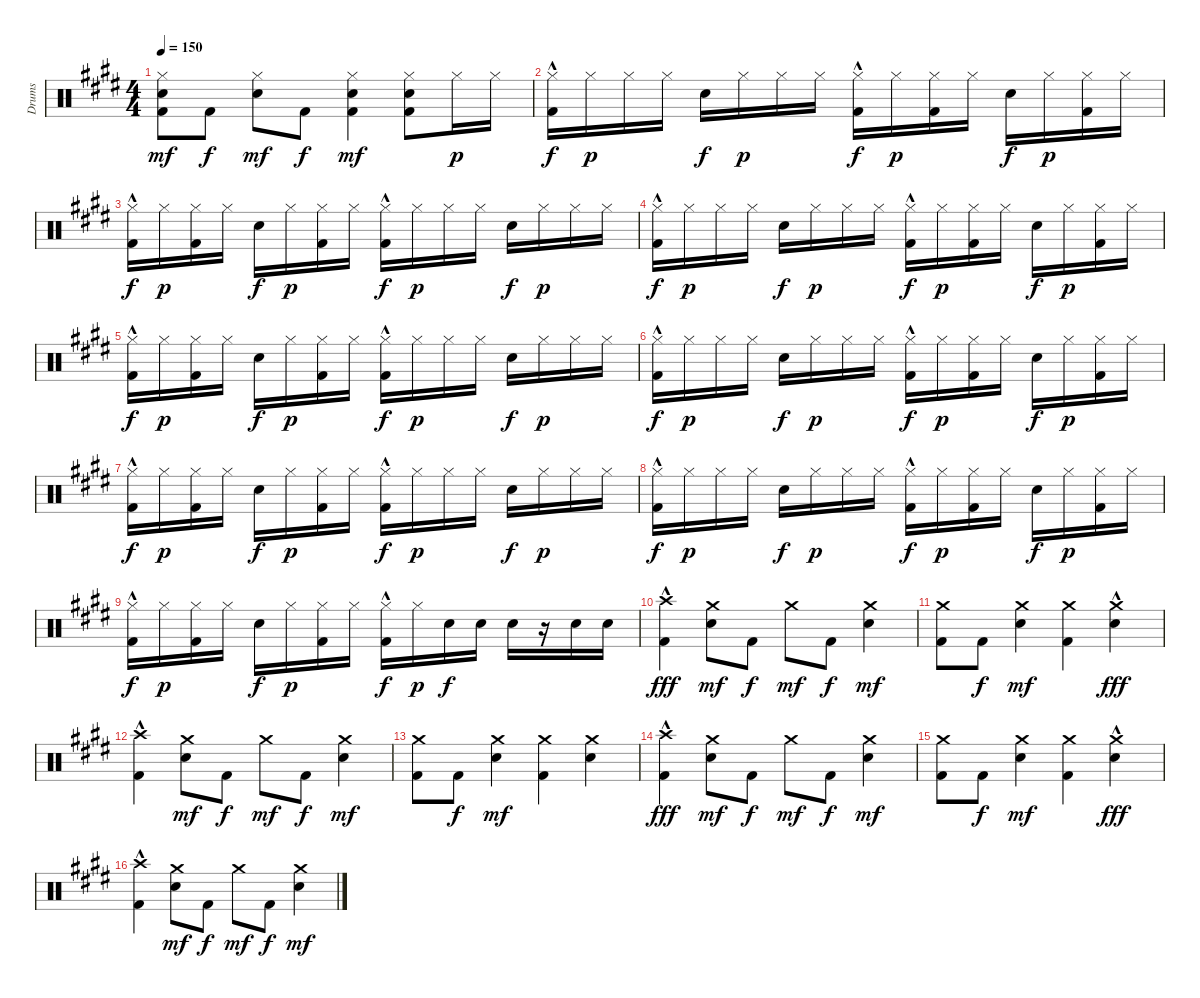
\track ("Drums" "Drums") {instrument percussion}
\staff {score}
\articulation defaults
\ts (4 4)
\tempo 150
\clef neutral
\ks e
("Hi-Hat (closed)" "Electric Snare (hit)" "Kick (hit) 2").8{dy mf} "Kick (hit) 2".8{dy f} ("Hi-Hat (closed)" "Electric Snare (hit)").8{dy mf} "Kick (hit) 2".8{dy f} ("Hi-Hat (closed)" "Electric Snare (hit)" "Kick (hit) 2").4{dy mf} ("Hi-Hat (closed)" "Electric Snare (hit)" "Kick (hit) 2").8 "Hi-Hat (closed)".16{dy p} "Hi-Hat (closed)".16 |
("Hi-Hat (closed)"{hac} "Kick (hit) 2").16{dy f} "Hi-Hat (closed)".16{dy p} "Hi-Hat (closed)".16 "Hi-Hat (closed)".16 "Electric Snare (hit)".16{dy f} "Hi-Hat (closed)".16{dy p} "Hi-Hat (closed)".16 "Hi-Hat (closed)".16 ("Hi-Hat (closed)"{hac} "Kick (hit) 2").16{dy f} "Hi-Hat (closed)".16{dy p} ("Hi-Hat (closed)" "Kick (hit) 2").16 "Hi-Hat (closed)".16 "Electric Snare (hit)".16{dy f} "Hi-Hat (closed)".16{dy p} ("Hi-Hat (closed)" "Kick (hit) 2").16 "Hi-Hat (closed)".16 |
("Hi-Hat (closed)"{hac} "Kick (hit) 2").16{dy f} "Hi-Hat (closed)".16{dy p} ("Hi-Hat (closed)" "Kick (hit) 2").16 "Hi-Hat (closed)".16 "Electric Snare (hit)".16{dy f} "Hi-Hat (closed)".16{dy p} ("Hi-Hat (closed)" "Kick (hit) 2").16 "Hi-Hat (closed)".16 ("Hi-Hat (closed)"{hac} "Kick (hit) 2").16{dy f} "Hi-Hat (closed)".16{dy p} "Hi-Hat (closed)".16 "Hi-Hat (closed)".16 "Electric Snare (hit)".16{dy f} "Hi-Hat (closed)".16{dy p} "Hi-Hat (closed)".16 "Hi-Hat (closed)".16 |
("Hi-Hat (closed)"{hac} "Kick (hit) 2").16{dy f} "Hi-Hat (closed)".16{dy p} "Hi-Hat (closed)".16 "Hi-Hat (closed)".16 "Electric Snare (hit)".16{dy f} "Hi-Hat (closed)".16{dy p} "Hi-Hat (closed)".16 "Hi-Hat (closed)".16 ("Hi-Hat (closed)"{hac} "Kick (hit) 2").16{dy f} "Hi-Hat (closed)".16{dy p} ("Hi-Hat (closed)" "Kick (hit) 2").16 "Hi-Hat (closed)".16 "Electric Snare (hit)".16{dy f} "Hi-Hat (closed)".16{dy p} ("Hi-Hat (closed)" "Kick (hit) 2").16 "Hi-Hat (closed)".16 |
("Hi-Hat (closed)"{hac} "Kick (hit) 2").16{dy f} "Hi-Hat (closed)".16{dy p} ("Hi-Hat (closed)" "Kick (hit) 2").16 "Hi-Hat (closed)".16 "Electric Snare (hit)".16{dy f} "Hi-Hat (closed)".16{dy p} ("Hi-Hat (closed)" "Kick (hit) 2").16 "Hi-Hat (closed)".16 ("Hi-Hat (closed)"{hac} "Kick (hit) 2").16{dy f} "Hi-Hat (closed)".16{dy p} "Hi-Hat (closed)".16 "Hi-Hat (closed)".16 "Electric Snare (hit)".16{dy f} "Hi-Hat (closed)".16{dy p} "Hi-Hat (closed)".16 "Hi-Hat (closed)".16 |
("Hi-Hat (closed)"{hac} "Kick (hit) 2").16{dy f} "Hi-Hat (closed)".16{dy p} "Hi-Hat (closed)".16 "Hi-Hat (closed)".16 "Electric Snare (hit)".16{dy f} "Hi-Hat (closed)".16{dy p} "Hi-Hat (closed)".16 "Hi-Hat (closed)".16 ("Hi-Hat (closed)"{hac} "Kick (hit) 2").16{dy f} "Hi-Hat (closed)".16{dy p} ("Hi-Hat (closed)" "Kick (hit) 2").16 "Hi-Hat (closed)".16 "Electric Snare (hit)".16{dy f} "Hi-Hat (closed)".16{dy p} ("Hi-Hat (closed)" "Kick (hit) 2").16 "Hi-Hat (closed)".16 |
("Hi-Hat (closed)"{hac} "Kick (hit) 2").16{dy f} "Hi-Hat (closed)".16{dy p} ("Hi-Hat (closed)" "Kick (hit) 2").16 "Hi-Hat (closed)".16 "Electric Snare (hit)".16{dy f} "Hi-Hat (closed)".16{dy p} ("Hi-Hat (closed)" "Kick (hit) 2").16 "Hi-Hat (closed)".16 ("Hi-Hat (closed)"{hac} "Kick (hit) 2").16{dy f} "Hi-Hat (closed)".16{dy p} "Hi-Hat (closed)".16 "Hi-Hat (closed)".16 "Electric Snare (hit)".16{dy f} "Hi-Hat (closed)".16{dy p} "Hi-Hat (closed)".16 "Hi-Hat (closed)".16 |
("Hi-Hat (closed)"{hac} "Kick (hit) 2").16{dy f} "Hi-Hat (closed)".16{dy p} "Hi-Hat (closed)".16 "Hi-Hat (closed)".16 "Electric Snare (hit)".16{dy f} "Hi-Hat (closed)".16{dy p} "Hi-Hat (closed)".16 "Hi-Hat (closed)".16 ("Hi-Hat (closed)"{hac} "Kick (hit) 2").16{dy f} "Hi-Hat (closed)".16{dy p} ("Hi-Hat (closed)" "Kick (hit) 2").16 "Hi-Hat (closed)".16 "Electric Snare (hit)".16{dy f} "Hi-Hat (closed)".16{dy p} ("Hi-Hat (closed)" "Kick (hit) 2").16 "Hi-Hat (closed)".16 |
("Hi-Hat (closed)"{hac} "Kick (hit) 2").16{dy f} "Hi-Hat (closed)".16{dy p} ("Hi-Hat (closed)" "Kick (hit) 2").16 "Hi-Hat (closed)".16 "Electric Snare (hit)".16{dy f} "Hi-Hat (closed)".16{dy p} ("Hi-Hat (closed)" "Kick (hit) 2").16 "Hi-Hat (closed)".16 ("Hi-Hat (closed)"{hac} "Kick (hit) 2").16{dy f} "Hi-Hat (closed)".16{dy p} "Electric Snare (hit)".16{dy f} "Electric Snare (hit)".16 "Electric Snare (hit)".16 r.16 "Electric Snare (hit)".16 "Electric Snare (hit)".16 |
("Crash high (hit)"{hac} "Kick (hit) 2").4{dy fff} ("Crash medium (hit)" "Electric Snare (hit)").8{dy mf} "Kick (hit) 2".8{dy f} "Crash medium (hit)".8{dy mf} "Kick (hit) 2".8{dy f} ("Crash medium (hit)" "Electric Snare (hit)").4{dy mf} |
("Crash medium (hit)" "Kick (hit) 2").8 "Kick (hit) 2".8{dy f} ("Crash medium (hit)" "Electric Snare (hit)").4{dy mf} ("Crash medium (hit)" "Kick (hit) 2").4 ("Crash medium (hit)"{hac} "Electric Snare (hit)").4{dy fff} |
("Crash high (hit)"{hac} "Kick (hit) 2").4 ("Crash medium (hit)" "Electric Snare (hit)").8{dy mf} "Kick (hit) 2".8{dy f} "Crash medium (hit)".8{dy mf} "Kick (hit) 2".8{dy f} ("Crash medium (hit)" "Electric Snare (hit)").4{dy mf} |
("Crash medium (hit)" "Kick (hit) 2").8 "Kick (hit) 2".8{dy f} ("Crash medium (hit)" "Electric Snare (hit)").4{dy mf} ("Crash medium (hit)" "Kick (hit) 2").4 ("Crash medium (hit)" "Electric Snare (hit)").4 |
("Crash high (hit)"{hac} "Kick (hit) 2").4{dy fff} ("Crash medium (hit)" "Electric Snare (hit)").8{dy mf} "Kick (hit) 2".8{dy f} "Crash medium (hit)".8{dy mf} "Kick (hit) 2".8{dy f} ("Crash medium (hit)" "Electric Snare (hit)").4{dy mf} |
("Crash medium (hit)" "Kick (hit) 2").8 "Kick (hit) 2".8{dy f} ("Crash medium (hit)" "Electric Snare (hit)").4{dy mf} ("Crash medium (hit)" "Kick (hit) 2").4 ("Crash medium (hit)"{hac} "Electric Snare (hit)").4{dy fff} |
("Crash high (hit)"{hac} "Kick (hit) 2").4 ("Crash medium (hit)" "Electric Snare (hit)").8{dy mf} "Kick (hit) 2".8{dy f} "Crash medium (hit)".8{dy mf} "Kick (hit) 2".8{dy f} ("Crash medium (hit)" "Electric Snare (hit)").4{dy mf}
